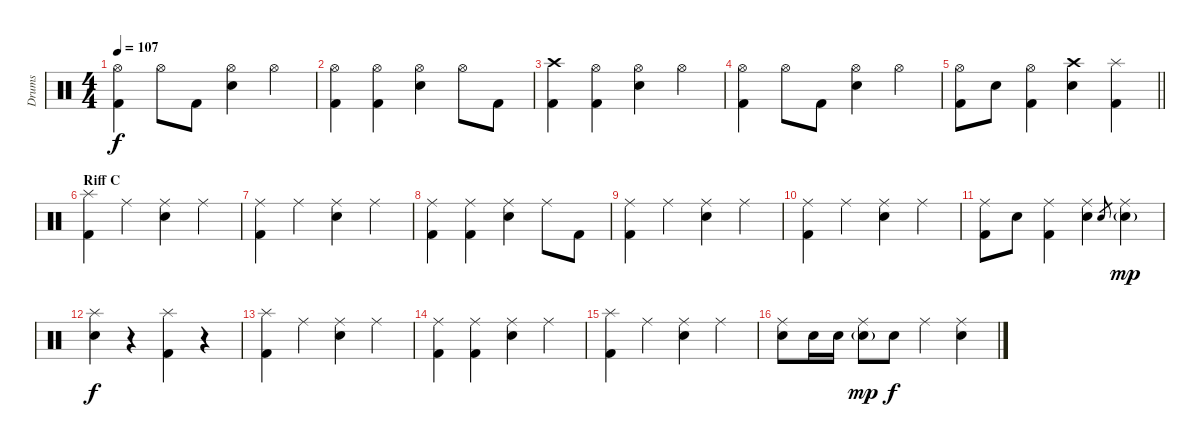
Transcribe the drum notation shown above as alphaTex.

\track ("Drums" "Drums") {instrument percussion}
\staff {score}
\articulation defaults
\ts (4 4)
\tempo 107
\clef neutral
\ks c
("Hi-Hat (open)" "Kick (hit) 2").4{dy f} "Hi-Hat (open)".8 "Kick (hit) 2".8 ("Hi-Hat (open)" "Electric Snare (hit)").4 "Hi-Hat (open)".4 |
("Hi-Hat (open)" "Kick (hit) 2").4 ("Hi-Hat (open)" "Kick (hit) 2").4 ("Hi-Hat (open)" "Electric Snare (hit)").4 "Hi-Hat (open)".8 "Kick (hit) 2".8 |
("Crash high (hit)" "Kick (hit) 2").4 ("Hi-Hat (open)" "Kick (hit) 2").4 ("Hi-Hat (open)" "Electric Snare (hit)").4 "Hi-Hat (open)".4 |
("Hi-Hat (open)" "Kick (hit) 2").4 "Hi-Hat (open)".8 "Kick (hit) 2".8 ("Hi-Hat (open)" "Electric Snare (hit)").4 "Hi-Hat (open)".4 |
\barLineRight lightlight
("Hi-Hat (open)" "Kick (hit) 2").8 "Electric Snare (hit)".8 ("Hi-Hat (open)" "Kick (hit) 2").4 ("Crash high (hit)" "Electric Snare (hit)").4 ("Splash (hit)" "Kick (hit) 2").4 |
\section ("" "Riff C")
("Splash (hit)" "Kick (hit) 2").4{volume 14} "Ride (middle)".4 ("Ride (middle)" "Electric Snare (hit)").4 "Ride (middle)".4 |
("Ride (middle)" "Kick (hit) 2").4 "Ride (middle)".4 ("Ride (middle)" "Electric Snare (hit)").4 "Ride (middle)".4 |
("Ride (middle)" "Kick (hit) 2").4 ("Ride (middle)" "Kick (hit) 2").4 ("Ride (middle)" "Electric Snare (hit)").4 "Ride (middle)".8 "Kick (hit) 2".8 |
("Ride (middle)" "Kick (hit) 2").4 "Ride (middle)".4 ("Ride (middle)" "Electric Snare (hit)").4 "Ride (middle)".4 |
("Ride (middle)" "Kick (hit) 2").4 "Ride (middle)".4 ("Ride (middle)" "Electric Snare (hit)").4 "Ride (middle)".4 |
("Ride (middle)" "Kick (hit) 2").8 "Electric Snare (hit)".8 ("Ride (middle)" "Kick (hit) 2").4 ("Ride (middle)" "Electric Snare (hit)").4 "Electric Snare (hit)".8{gr} ("Ride (middle)" "Electric Snare (hit)"{g}).4{dy mp} |
("Splash (hit)" "Electric Snare (hit)").4{dy f} r.4 ("Splash (hit)" "Kick (hit) 2").4 r.4 |
("Splash (hit)" "Kick (hit) 2").4 "Ride (middle)".4 ("Ride (middle)" "Electric Snare (hit)").4 "Ride (middle)".4 |
("Ride (middle)" "Kick (hit) 2").4 ("Ride (middle)" "Kick (hit) 2").4 ("Ride (middle)" "Electric Snare (hit)").4 "Ride (middle)".4 |
("Splash (hit)" "Kick (hit) 2").4 "Ride (middle)".4 ("Ride (middle)" "Electric Snare (hit)").4 "Ride (middle)".4 |
("Ride (middle)" "Electric Snare (hit)").8 "Electric Snare (hit)".16 "Electric Snare (hit)".16 ("Ride (middle)" "Electric Snare (hit)"{g}).8{dy mp} "Electric Snare (hit)".8{dy f} "Ride (middle)".4 ("Ride (middle)" "Electric Snare (hit)").4
